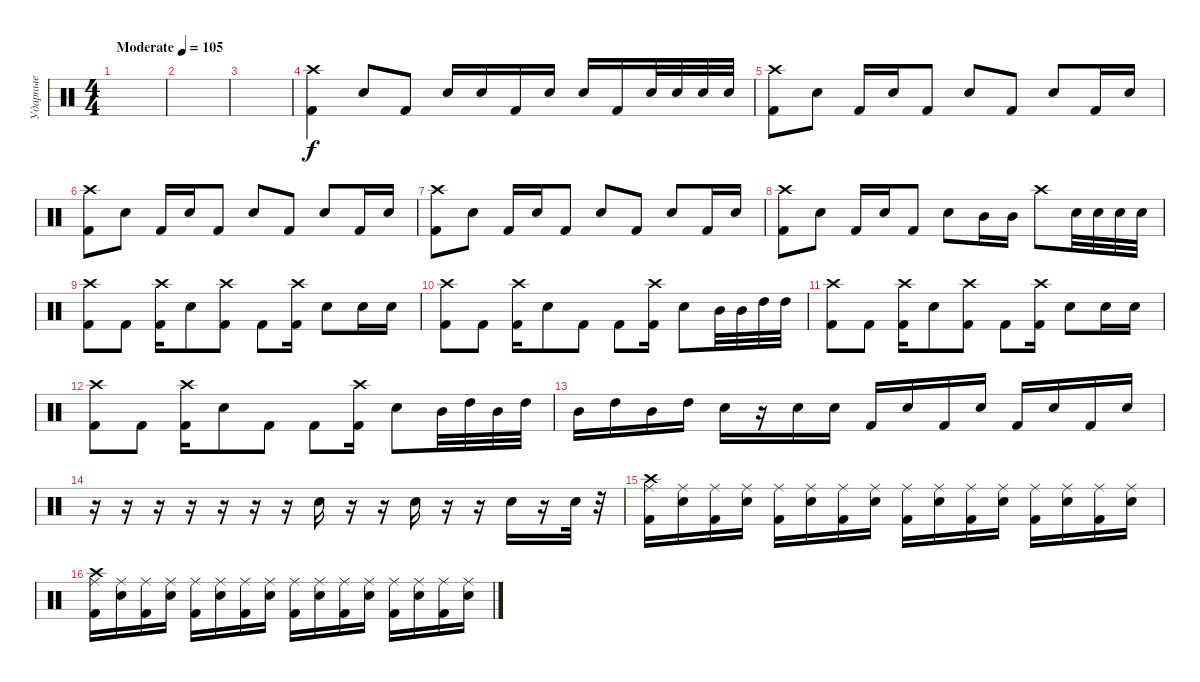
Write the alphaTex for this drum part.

\track ("Ударные" "Ударные") {instrument percussion}
\staff {score}
\articulation defaults
\ts (4 4)
\tempo (105 "Moderate")
\clef neutral
\ks c
|
|
|
("Kick (hit) 2" "Crash high (hit)").4 "Electric Snare (hit)".8 "Kick (hit) 2".8 "Electric Snare (hit)".16 "Electric Snare (hit)".16 "Kick (hit) 2".16 "Electric Snare (hit)".16 "Electric Snare (hit)".16 "Kick (hit) 2".16 "Electric Snare (hit)".32 "Electric Snare (hit)".32 "Electric Snare (hit)".32 "Electric Snare (hit)".32 |
("Kick (hit) 2" "Crash high (hit)").8 "Electric Snare (hit)".8 "Kick (hit) 2".16 "Electric Snare (hit)".16 "Kick (hit) 2".8 "Electric Snare (hit)".8 "Kick (hit) 2".8 "Electric Snare (hit)".8 "Kick (hit) 2".16 "Electric Snare (hit)".16 |
("Kick (hit) 2" "Crash high (hit)").8 "Electric Snare (hit)".8 "Kick (hit) 2".16 "Electric Snare (hit)".16 "Kick (hit) 2".8 "Electric Snare (hit)".8 "Kick (hit) 2".8 "Electric Snare (hit)".8 "Kick (hit) 2".16 "Electric Snare (hit)".16 |
("Kick (hit) 2" "Crash high (hit)").8 "Electric Snare (hit)".8 "Kick (hit) 2".16 "Electric Snare (hit)".16 "Kick (hit) 2".8 "Electric Snare (hit)".8 "Kick (hit) 2".8 "Electric Snare (hit)".8 "Kick (hit) 2".16 "Electric Snare (hit)".16 |
("Kick (hit) 2" "Crash high (hit)").8 "Electric Snare (hit)".8 "Kick (hit) 2".16 "Electric Snare (hit)".16 "Kick (hit) 2".8 "Electric Snare (hit)".8 "Mid Tom (hit)".16 "Mid Tom (hit)".16 "Crash high (hit)".8 "Electric Snare (hit)".32 "Electric Snare (hit)".32 "Electric Snare (hit)".32 "Electric Snare (hit)".32 |
("Kick (hit) 2" "Crash high (hit)").8 "Kick (hit) 2".8 ("Kick (hit) 2" "Crash high (hit)").16 "Electric Snare (hit)".8 ("Kick (hit) 2" "Crash high (hit)").8 "Kick (hit) 2".8 ("Kick (hit) 2" "Crash high (hit)").16 "Electric Snare (hit)".8 "Electric Snare (hit)".16 "Electric Snare (hit)".16 |
("Kick (hit) 2" "Crash high (hit)").8 "Kick (hit) 2".8 ("Kick (hit) 2" "Crash high (hit)").16 "Electric Snare (hit)".8 "Kick (hit) 2".8 "Kick (hit) 2".8 ("Kick (hit) 2" "Crash high (hit)").16 "Electric Snare (hit)".8 "Mid Tom (hit)".32 "Mid Tom (hit)".32 "High Tom (hit)".32 "High Tom (hit)".32 |
("Kick (hit) 2" "Crash high (hit)").8 "Kick (hit) 2".8 ("Kick (hit) 2" "Crash high (hit)").16 "Electric Snare (hit)".8 ("Kick (hit) 2" "Crash high (hit)").8 "Kick (hit) 2".8 ("Kick (hit) 2" "Crash high (hit)").16 "Electric Snare (hit)".8 "Electric Snare (hit)".16 "Electric Snare (hit)".16 |
("Kick (hit) 2" "Crash high (hit)").8 "Kick (hit) 2".8 ("Kick (hit) 2" "Crash high (hit)").16 "Electric Snare (hit)".8 "Kick (hit) 2".8 "Kick (hit) 2".8 ("Kick (hit) 2" "Crash high (hit)").16 "Electric Snare (hit)".8 "Mid Tom (hit)".32 "High Tom (hit)".32 "Mid Tom (hit)".32 "High Tom (hit)".32 |
"Mid Tom (hit)".16 "High Tom (hit)".16 "Mid Tom (hit)".16 "High Tom (hit)".16 "Electric Snare (hit)".16 r.16 "Electric Snare (hit)".16 "Electric Snare (hit)".16 "Kick (hit) 2".16 "Electric Snare (hit)".16 "Kick (hit) 2".16 "Electric Snare (hit)".16 "Kick (hit) 2".16 "Electric Snare (hit)".16 "Kick (hit) 2".16 "Electric Snare (hit)".16 |
r.16 r.16 r.16 r.16 r.16 r.16 r.16 "Electric Snare (hit)".16 r.16 r.16 "Electric Snare (hit)".16 r.16 r.16 "Electric Snare (hit)".16 r.16 "Electric Snare (hit)".32 r.32 |
("Ride (middle)" "Crash high (hit)" "Kick (hit) 2").16 ("Ride (middle)" "Electric Snare (hit)").16 ("Ride (middle)" "Kick (hit) 2").16 ("Ride (middle)" "Electric Snare (hit)").16 ("Ride (middle)" "Kick (hit) 2").16 ("Ride (middle)" "Electric Snare (hit)").16 ("Ride (middle)" "Kick (hit) 2").16 ("Ride (middle)" "Electric Snare (hit)").16 ("Ride (middle)" "Kick (hit) 2").16 ("Ride (middle)" "Electric Snare (hit)").16 ("Ride (middle)" "Kick (hit) 2").16 ("Ride (middle)" "Electric Snare (hit)").16 ("Ride (middle)" "Kick (hit) 2").16 ("Ride (middle)" "Electric Snare (hit)").16 ("Ride (middle)" "Kick (hit) 2").16 ("Ride (middle)" "Electric Snare (hit)").16 |
("Ride (middle)" "Crash high (hit)" "Kick (hit) 2").16 ("Ride (middle)" "Electric Snare (hit)").16 ("Ride (middle)" "Kick (hit) 2").16 ("Ride (middle)" "Electric Snare (hit)").16 ("Ride (middle)" "Kick (hit) 2").16 ("Ride (middle)" "Electric Snare (hit)").16 ("Ride (middle)" "Kick (hit) 2").16 ("Ride (middle)" "Electric Snare (hit)").16 ("Ride (middle)" "Kick (hit) 2").16 ("Ride (middle)" "Electric Snare (hit)").16 ("Ride (middle)" "Kick (hit) 2").16 ("Ride (middle)" "Electric Snare (hit)").16 ("Ride (middle)" "Kick (hit) 2").16 ("Ride (middle)" "Electric Snare (hit)").16 ("Ride (middle)" "Kick (hit) 2").16 ("Ride (middle)" "Electric Snare (hit)").16
